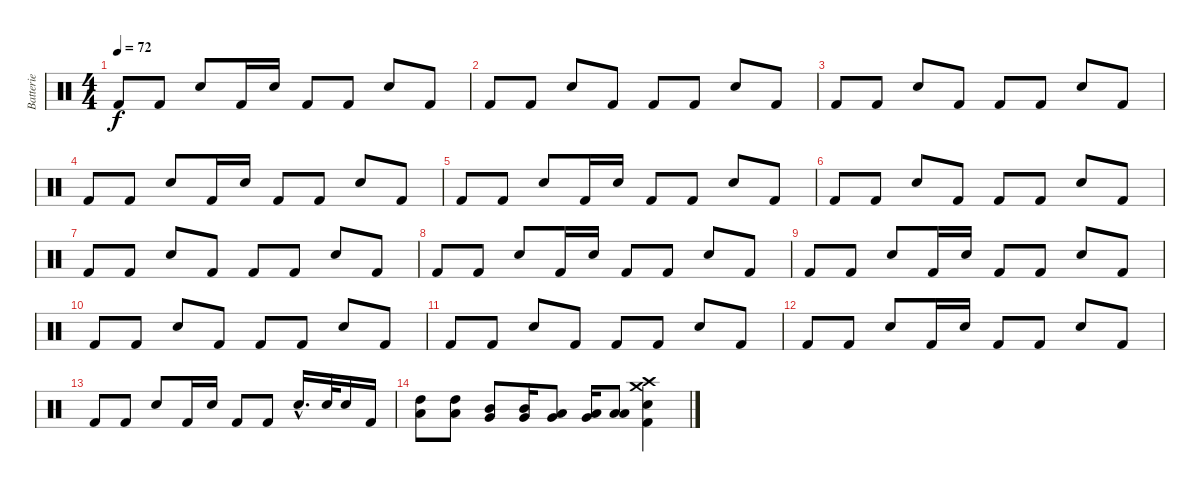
\track ("Batterie" "Batterie") {instrument percussion}
\staff {score}
\articulation defaults
\ts (4 4)
\tempo 72
\clef neutral
\ks c "Kick (hit) 2".8{dy f} "Kick (hit) 2".8 "Electric Snare (hit)".8 "Kick (hit) 2".16 "Electric Snare (hit)".16 "Kick (hit) 2".8 "Kick (hit) 2".8 "Electric Snare (hit)".8 "Kick (hit) 2".8
|
"Kick (hit) 2".8 "Kick (hit) 2".8 "Electric Snare (hit)".8 "Kick (hit) 2".8 "Kick (hit) 2".8 "Kick (hit) 2".8 "Electric Snare (hit)".8 "Kick (hit) 2".8 |
"Kick (hit) 2".8 "Kick (hit) 2".8 "Electric Snare (hit)".8 "Kick (hit) 2".8 "Kick (hit) 2".8 "Kick (hit) 2".8 "Electric Snare (hit)".8 "Kick (hit) 2".8 |
"Kick (hit) 2".8 "Kick (hit) 2".8 "Electric Snare (hit)".8 "Kick (hit) 2".16 "Electric Snare (hit)".16 "Kick (hit) 2".8 "Kick (hit) 2".8 "Electric Snare (hit)".8 "Kick (hit) 2".8 |
"Kick (hit) 2".8 "Kick (hit) 2".8 "Electric Snare (hit)".8 "Kick (hit) 2".16 "Electric Snare (hit)".16 "Kick (hit) 2".8 "Kick (hit) 2".8 "Electric Snare (hit)".8 "Kick (hit) 2".8 |
"Kick (hit) 2".8 "Kick (hit) 2".8 "Electric Snare (hit)".8 "Kick (hit) 2".8 "Kick (hit) 2".8 "Kick (hit) 2".8 "Electric Snare (hit)".8 "Kick (hit) 2".8 |
"Kick (hit) 2".8 "Kick (hit) 2".8 "Electric Snare (hit)".8 "Kick (hit) 2".8 "Kick (hit) 2".8 "Kick (hit) 2".8 "Electric Snare (hit)".8 "Kick (hit) 2".8 |
"Kick (hit) 2".8 "Kick (hit) 2".8 "Electric Snare (hit)".8 "Kick (hit) 2".16 "Electric Snare (hit)".16 "Kick (hit) 2".8 "Kick (hit) 2".8 "Electric Snare (hit)".8 "Kick (hit) 2".8 |
"Kick (hit) 2".8 "Kick (hit) 2".8 "Electric Snare (hit)".8 "Kick (hit) 2".16 "Electric Snare (hit)".16 "Kick (hit) 2".8 "Kick (hit) 2".8 "Electric Snare (hit)".8 "Kick (hit) 2".8 |
"Kick (hit) 2".8 "Kick (hit) 2".8 "Electric Snare (hit)".8 "Kick (hit) 2".8 "Kick (hit) 2".8 "Kick (hit) 2".8 "Electric Snare (hit)".8 "Kick (hit) 2".8 |
"Kick (hit) 2".8 "Kick (hit) 2".8 "Electric Snare (hit)".8 "Kick (hit) 2".8 "Kick (hit) 2".8 "Kick (hit) 2".8 "Electric Snare (hit)".8 "Kick (hit) 2".8 |
"Kick (hit) 2".8 "Kick (hit) 2".8 "Electric Snare (hit)".8 "Kick (hit) 2".16 "Electric Snare (hit)".16 "Kick (hit) 2".8 "Kick (hit) 2".8 "Electric Snare (hit)".8 "Kick (hit) 2".8 |
"Kick (hit) 2".8 "Kick (hit) 2".8 "Electric Snare (hit)".8 "Kick (hit) 2".16 "Electric Snare (hit)".16 "Kick (hit) 2".8 "Kick (hit) 2".8 "Electric Snare (hit)"{hac}.16{d} "Electric Snare (hit)".32 "Electric Snare (hit)".16 "Kick (hit) 2".16 |
("Low Tom (hit)" "High Tom (hit)").8 ("Low Tom (hit)" "High Tom (hit)").8 ("Very Low Tom (hit)" "Mid Tom (hit)").8 ("Very Low Tom (hit)" "Mid Tom (hit)").16 ("Very Low Tom (hit)" "Low Tom (hit)").8 ("Low Floor Tom (hit)" "Very Low Tom (hit)").16 ("Low Floor Tom (hit)" "Low Floor Tom (hit)").8 ("Crash medium (hit)" "Crash high (hit)" "Electric Snare (hit)" "Kick (hit) 2").4
